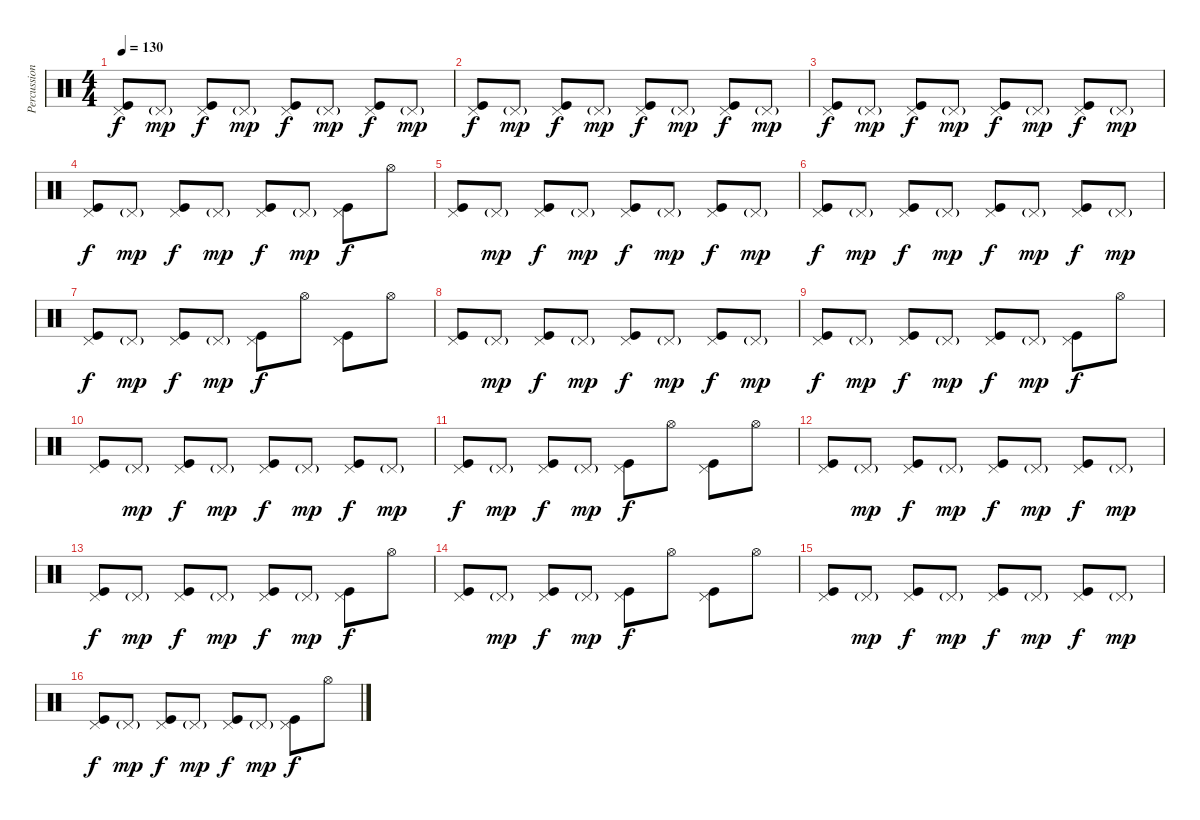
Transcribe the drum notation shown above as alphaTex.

\track ("Percussion" "Percussion") {instrument percussion}
\staff {score}
\articulation defaults
\ts (4 4)
\tempo 130
\clef neutral
\ks c
("Pedal Hi-Hat (hit)" "Kick (hit)").8{dy f} "Pedal Hi-Hat (hit)"{g}.8{dy mp} ("Pedal Hi-Hat (hit)" "Kick (hit)").8{dy f} "Pedal Hi-Hat (hit)"{g}.8{dy mp} ("Pedal Hi-Hat (hit)" "Kick (hit)").8{dy f} "Pedal Hi-Hat (hit)"{g}.8{dy mp} ("Pedal Hi-Hat (hit)" "Kick (hit)").8{dy f} "Pedal Hi-Hat (hit)"{g}.8{dy mp} |
("Pedal Hi-Hat (hit)" "Kick (hit)").8{dy f} "Pedal Hi-Hat (hit)"{g}.8{dy mp} ("Pedal Hi-Hat (hit)" "Kick (hit)").8{dy f} "Pedal Hi-Hat (hit)"{g}.8{dy mp} ("Pedal Hi-Hat (hit)" "Kick (hit)").8{dy f} "Pedal Hi-Hat (hit)"{g}.8{dy mp} ("Pedal Hi-Hat (hit)" "Kick (hit)").8{dy f} "Pedal Hi-Hat (hit)"{g}.8{dy mp} |
("Pedal Hi-Hat (hit)" "Kick (hit)").8{dy f} "Pedal Hi-Hat (hit)"{g}.8{dy mp} ("Pedal Hi-Hat (hit)" "Kick (hit)").8{dy f} "Pedal Hi-Hat (hit)"{g}.8{dy mp} ("Pedal Hi-Hat (hit)" "Kick (hit)").8{dy f} "Pedal Hi-Hat (hit)"{g}.8{dy mp} ("Pedal Hi-Hat (hit)" "Kick (hit)").8{dy f} "Pedal Hi-Hat (hit)"{g}.8{dy mp} |
("Pedal Hi-Hat (hit)" "Kick (hit)").8{dy f} "Pedal Hi-Hat (hit)"{g}.8{dy mp} ("Pedal Hi-Hat (hit)" "Kick (hit)").8{dy f} "Pedal Hi-Hat (hit)"{g}.8{dy mp} ("Pedal Hi-Hat (hit)" "Kick (hit)").8{dy f} "Pedal Hi-Hat (hit)"{g}.8{dy mp} ("Pedal Hi-Hat (hit)" "Kick (hit)").8{dy f} "Hi-Hat (open)".8 |
("Pedal Hi-Hat (hit)" "Kick (hit)").8 "Pedal Hi-Hat (hit)"{g}.8{dy mp} ("Pedal Hi-Hat (hit)" "Kick (hit)").8{dy f} "Pedal Hi-Hat (hit)"{g}.8{dy mp} ("Pedal Hi-Hat (hit)" "Kick (hit)").8{dy f} "Pedal Hi-Hat (hit)"{g}.8{dy mp} ("Pedal Hi-Hat (hit)" "Kick (hit)").8{dy f} "Pedal Hi-Hat (hit)"{g}.8{dy mp} |
("Pedal Hi-Hat (hit)" "Kick (hit)").8{dy f} "Pedal Hi-Hat (hit)"{g}.8{dy mp} ("Pedal Hi-Hat (hit)" "Kick (hit)").8{dy f} "Pedal Hi-Hat (hit)"{g}.8{dy mp} ("Pedal Hi-Hat (hit)" "Kick (hit)").8{dy f} "Pedal Hi-Hat (hit)"{g}.8{dy mp} ("Pedal Hi-Hat (hit)" "Kick (hit)").8{dy f} "Pedal Hi-Hat (hit)"{g}.8{dy mp} |
("Pedal Hi-Hat (hit)" "Kick (hit)").8{dy f} "Pedal Hi-Hat (hit)"{g}.8{dy mp} ("Pedal Hi-Hat (hit)" "Kick (hit)").8{dy f} "Pedal Hi-Hat (hit)"{g}.8{dy mp} ("Pedal Hi-Hat (hit)" "Kick (hit)").8{dy f} "Hi-Hat (open)".8 ("Pedal Hi-Hat (hit)" "Kick (hit)").8 "Hi-Hat (open)".8 |
("Pedal Hi-Hat (hit)" "Kick (hit)").8 "Pedal Hi-Hat (hit)"{g}.8{dy mp} ("Pedal Hi-Hat (hit)" "Kick (hit)").8{dy f} "Pedal Hi-Hat (hit)"{g}.8{dy mp} ("Pedal Hi-Hat (hit)" "Kick (hit)").8{dy f} "Pedal Hi-Hat (hit)"{g}.8{dy mp} ("Pedal Hi-Hat (hit)" "Kick (hit)").8{dy f} "Pedal Hi-Hat (hit)"{g}.8{dy mp} |
("Pedal Hi-Hat (hit)" "Kick (hit)").8{dy f} "Pedal Hi-Hat (hit)"{g}.8{dy mp} ("Pedal Hi-Hat (hit)" "Kick (hit)").8{dy f} "Pedal Hi-Hat (hit)"{g}.8{dy mp} ("Pedal Hi-Hat (hit)" "Kick (hit)").8{dy f} "Pedal Hi-Hat (hit)"{g}.8{dy mp} ("Pedal Hi-Hat (hit)" "Kick (hit)").8{dy f} "Hi-Hat (open)".8 |
("Pedal Hi-Hat (hit)" "Kick (hit)").8 "Pedal Hi-Hat (hit)"{g}.8{dy mp} ("Pedal Hi-Hat (hit)" "Kick (hit)").8{dy f} "Pedal Hi-Hat (hit)"{g}.8{dy mp} ("Pedal Hi-Hat (hit)" "Kick (hit)").8{dy f} "Pedal Hi-Hat (hit)"{g}.8{dy mp} ("Pedal Hi-Hat (hit)" "Kick (hit)").8{dy f} "Pedal Hi-Hat (hit)"{g}.8{dy mp} |
("Pedal Hi-Hat (hit)" "Kick (hit)").8{dy f} "Pedal Hi-Hat (hit)"{g}.8{dy mp} ("Pedal Hi-Hat (hit)" "Kick (hit)").8{dy f} "Pedal Hi-Hat (hit)"{g}.8{dy mp} ("Pedal Hi-Hat (hit)" "Kick (hit)").8{dy f} "Hi-Hat (open)".8 ("Pedal Hi-Hat (hit)" "Kick (hit)").8 "Hi-Hat (open)".8 |
("Pedal Hi-Hat (hit)" "Kick (hit)").8 "Pedal Hi-Hat (hit)"{g}.8{dy mp} ("Pedal Hi-Hat (hit)" "Kick (hit)").8{dy f} "Pedal Hi-Hat (hit)"{g}.8{dy mp} ("Pedal Hi-Hat (hit)" "Kick (hit)").8{dy f} "Pedal Hi-Hat (hit)"{g}.8{dy mp} ("Pedal Hi-Hat (hit)" "Kick (hit)").8{dy f} "Pedal Hi-Hat (hit)"{g}.8{dy mp} |
("Pedal Hi-Hat (hit)" "Kick (hit)").8{dy f} "Pedal Hi-Hat (hit)"{g}.8{dy mp} ("Pedal Hi-Hat (hit)" "Kick (hit)").8{dy f} "Pedal Hi-Hat (hit)"{g}.8{dy mp} ("Pedal Hi-Hat (hit)" "Kick (hit)").8{dy f} "Pedal Hi-Hat (hit)"{g}.8{dy mp} ("Pedal Hi-Hat (hit)" "Kick (hit)").8{dy f} "Hi-Hat (open)".8 |
("Pedal Hi-Hat (hit)" "Kick (hit)").8 "Pedal Hi-Hat (hit)"{g}.8{dy mp} ("Pedal Hi-Hat (hit)" "Kick (hit)").8{dy f} "Pedal Hi-Hat (hit)"{g}.8{dy mp} ("Pedal Hi-Hat (hit)" "Kick (hit)").8{dy f} "Hi-Hat (open)".8 ("Pedal Hi-Hat (hit)" "Kick (hit)").8 "Hi-Hat (open)".8 |
("Pedal Hi-Hat (hit)" "Kick (hit)").8 "Pedal Hi-Hat (hit)"{g}.8{dy mp} ("Pedal Hi-Hat (hit)" "Kick (hit)").8{dy f} "Pedal Hi-Hat (hit)"{g}.8{dy mp} ("Pedal Hi-Hat (hit)" "Kick (hit)").8{dy f} "Pedal Hi-Hat (hit)"{g}.8{dy mp} ("Pedal Hi-Hat (hit)" "Kick (hit)").8{dy f} "Pedal Hi-Hat (hit)"{g}.8{dy mp} |
("Pedal Hi-Hat (hit)" "Kick (hit)").8{dy f} "Pedal Hi-Hat (hit)"{g}.8{dy mp} ("Pedal Hi-Hat (hit)" "Kick (hit)").8{dy f} "Pedal Hi-Hat (hit)"{g}.8{dy mp} ("Pedal Hi-Hat (hit)" "Kick (hit)").8{dy f} "Pedal Hi-Hat (hit)"{g}.8{dy mp} ("Pedal Hi-Hat (hit)" "Kick (hit)").8{dy f} "Hi-Hat (open)".8
